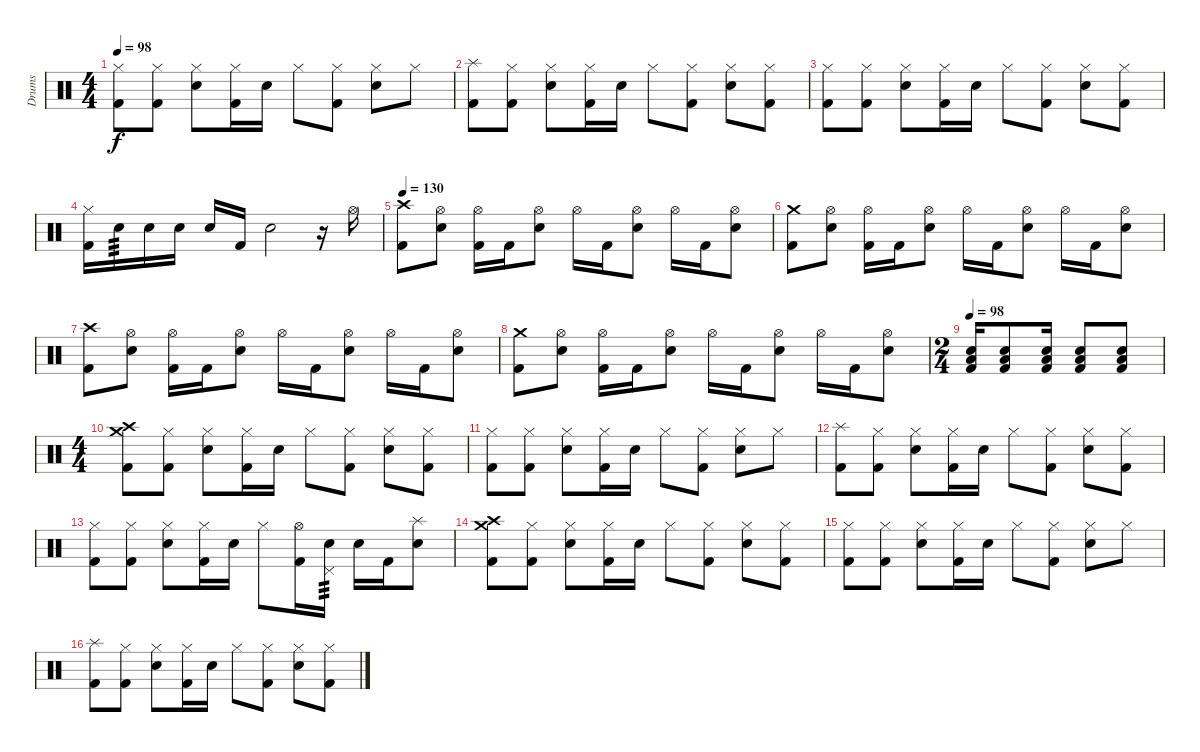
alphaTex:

\track ("Drums" "Drums") {instrument percussion}
\staff {score}
\articulation defaults
\ts (4 4)
\tempo 98
\clef neutral
\ks c
("Hi-Hat (closed)" "Kick (hit) 2").8{dy f} ("Hi-Hat (closed)" "Kick (hit) 2").8 ("Hi-Hat (closed)" "Snare (hit) 2").8 ("Hi-Hat (closed)" "Kick (hit) 2").16 "Snare (hit) 2".16 "Hi-Hat (closed)".8 ("Hi-Hat (closed)" "Kick (hit) 2").8 ("Hi-Hat (closed)" "Snare (hit) 2").8 "Hi-Hat (closed)".8 |
("Splash (hit)" "Kick (hit) 2").8 ("Hi-Hat (closed)" "Kick (hit) 2").8 ("Hi-Hat (closed)" "Snare (hit) 2").8 ("Hi-Hat (closed)" "Kick (hit) 2").16 "Snare (hit) 2".16 "Hi-Hat (closed)".8 ("Hi-Hat (closed)" "Kick (hit) 2").8 ("Hi-Hat (closed)" "Snare (hit) 2").8 ("Hi-Hat (closed)" "Kick (hit) 2").8 |
("Hi-Hat (closed)" "Kick (hit) 2").8 ("Hi-Hat (closed)" "Kick (hit) 2").8 ("Hi-Hat (closed)" "Snare (hit) 2").8 ("Hi-Hat (closed)" "Kick (hit) 2").16 "Snare (hit) 2".16 "Hi-Hat (closed)".8 ("Hi-Hat (closed)" "Kick (hit) 2").8 ("Hi-Hat (closed)" "Snare (hit) 2").8 ("Hi-Hat (closed)" "Kick (hit) 2").8 |
("Hi-Hat (closed)" "Kick (hit) 2").16 "Snare (hit) 2".16{tp 3} "Snare (hit) 2".16 "Snare (hit) 2".16 "Snare (hit) 2".16 "Kick (hit) 2".16 "Snare (hit) 2".2 r.16 "Hi-Hat (open)".16 |
\tempo 130
("Crash high (hit)" "Kick (hit) 2").8 ("Hi-Hat (open)" "Snare (hit) 2").8 ("Hi-Hat (open)" "Kick (hit) 2").16 "Kick (hit) 2".16 ("Hi-Hat (open)" "Snare (hit) 2").8 "Hi-Hat (open)".16 "Kick (hit) 2".16 ("Hi-Hat (open)" "Snare (hit) 2").8 "Hi-Hat (open)".16 "Kick (hit) 2".16 ("Hi-Hat (open)" "Snare (hit) 2").8 |
("Crash medium (hit)" "Kick (hit) 2").8 ("Hi-Hat (open)" "Snare (hit) 2").8 ("Hi-Hat (open)" "Kick (hit) 2").16 "Kick (hit) 2".16 ("Hi-Hat (open)" "Snare (hit) 2").8 "Hi-Hat (open)".16 "Kick (hit) 2".16 ("Hi-Hat (open)" "Snare (hit) 2").8 "Hi-Hat (open)".16 "Kick (hit) 2".16 ("Hi-Hat (open)" "Snare (hit) 2").8 |
("Crash high (hit)" "Kick (hit) 2").8 ("Hi-Hat (open)" "Snare (hit) 2").8 ("Hi-Hat (open)" "Kick (hit) 2").16 "Kick (hit) 2".16 ("Hi-Hat (open)" "Snare (hit) 2").8 "Hi-Hat (open)".16 "Kick (hit) 2".16 ("Hi-Hat (open)" "Snare (hit) 2").8 "Hi-Hat (open)".16 "Kick (hit) 2".16 ("Hi-Hat (open)" "Snare (hit) 2").8 |
("Crash medium (hit)" "Kick (hit) 2").8 ("Hi-Hat (open)" "Snare (hit) 2").8 ("Hi-Hat (open)" "Kick (hit) 2").16 "Kick (hit) 2".16 ("Hi-Hat (open)" "Snare (hit) 2").8 "Hi-Hat (open)".16 "Kick (hit) 2".16 ("Hi-Hat (open)" "Snare (hit) 2").8 "Hi-Hat (open)".16 "Kick (hit) 2".16 ("Hi-Hat (open)" "Snare (hit) 2").8 |
\ts (2 4)
\tempo 98
("Snare (hit) 2" "Low Tom (hit)" "Kick (hit) 2").16 ("Snare (hit) 2" "Low Tom (hit)" "Kick (hit) 2").8 ("Snare (hit) 2" "Low Tom (hit)" "Kick (hit) 2").16 ("Snare (hit) 2" "Low Tom (hit)" "Kick (hit) 2").8 ("Snare (hit) 2" "Low Tom (hit)" "Kick (hit) 2").8 |
\ts (4 4)
("Crash high (hit)" "Crash medium (hit)" "Kick (hit) 2").8 ("Hi-Hat (closed)" "Kick (hit) 2").8 ("Hi-Hat (closed)" "Snare (hit) 2").8 ("Hi-Hat (closed)" "Kick (hit) 2").16 "Snare (hit) 2".16 "Hi-Hat (closed)".8 ("Hi-Hat (closed)" "Kick (hit) 2").8 ("Hi-Hat (closed)" "Snare (hit) 2").8 ("Hi-Hat (closed)" "Kick (hit) 2").8 |
("Hi-Hat (closed)" "Kick (hit) 2").8 ("Hi-Hat (closed)" "Kick (hit) 2").8 ("Hi-Hat (closed)" "Snare (hit) 2").8 ("Hi-Hat (closed)" "Kick (hit) 2").16 "Snare (hit) 2".16 "Hi-Hat (closed)".8 ("Hi-Hat (closed)" "Kick (hit) 2").8 ("Hi-Hat (closed)" "Snare (hit) 2").8 "Hi-Hat (closed)".8 |
("Splash (hit)" "Kick (hit) 2").8 ("Hi-Hat (closed)" "Kick (hit) 2").8 ("Hi-Hat (closed)" "Snare (hit) 2").8 ("Hi-Hat (closed)" "Kick (hit) 2").16 "Snare (hit) 2".16 "Hi-Hat (closed)".8 ("Hi-Hat (closed)" "Kick (hit) 2").8 ("Hi-Hat (closed)" "Snare (hit) 2").8 ("Hi-Hat (closed)" "Kick (hit) 2").8 |
("Hi-Hat (closed)" "Kick (hit) 2").8 ("Hi-Hat (closed)" "Kick (hit) 2").8 ("Hi-Hat (closed)" "Snare (hit) 2").8 ("Hi-Hat (closed)" "Kick (hit) 2").16 "Snare (hit) 2".16 "Hi-Hat (closed)".8 ("Hi-Hat (open)" "Kick (hit) 2").16 ("Pedal Hi-Hat (hit)" "Snare (hit) 2").16{tp 3} "Snare (hit) 2".16 "Kick (hit) 2".16 ("Splash (hit)" "Snare (hit) 2").8 |
("Crash high (hit)" "Crash medium (hit)" "Kick (hit) 2").8 ("Hi-Hat (closed)" "Kick (hit) 2").8 ("Hi-Hat (closed)" "Snare (hit) 2").8 ("Hi-Hat (closed)" "Kick (hit) 2").16 "Snare (hit) 2".16 "Hi-Hat (closed)".8 ("Hi-Hat (closed)" "Kick (hit) 2").8 ("Hi-Hat (closed)" "Snare (hit) 2").8 ("Hi-Hat (closed)" "Kick (hit) 2").8 |
("Hi-Hat (closed)" "Kick (hit) 2").8 ("Hi-Hat (closed)" "Kick (hit) 2").8 ("Hi-Hat (closed)" "Snare (hit) 2").8 ("Hi-Hat (closed)" "Kick (hit) 2").16 "Snare (hit) 2".16 "Hi-Hat (closed)".8 ("Hi-Hat (closed)" "Kick (hit) 2").8 ("Hi-Hat (closed)" "Snare (hit) 2").8 "Hi-Hat (closed)".8 |
("Splash (hit)" "Kick (hit) 2").8 ("Hi-Hat (closed)" "Kick (hit) 2").8 ("Hi-Hat (closed)" "Snare (hit) 2").8 ("Hi-Hat (closed)" "Kick (hit) 2").16 "Snare (hit) 2".16 "Hi-Hat (closed)".8 ("Hi-Hat (closed)" "Kick (hit) 2").8 ("Hi-Hat (closed)" "Snare (hit) 2").8 ("Hi-Hat (closed)" "Kick (hit) 2").8
